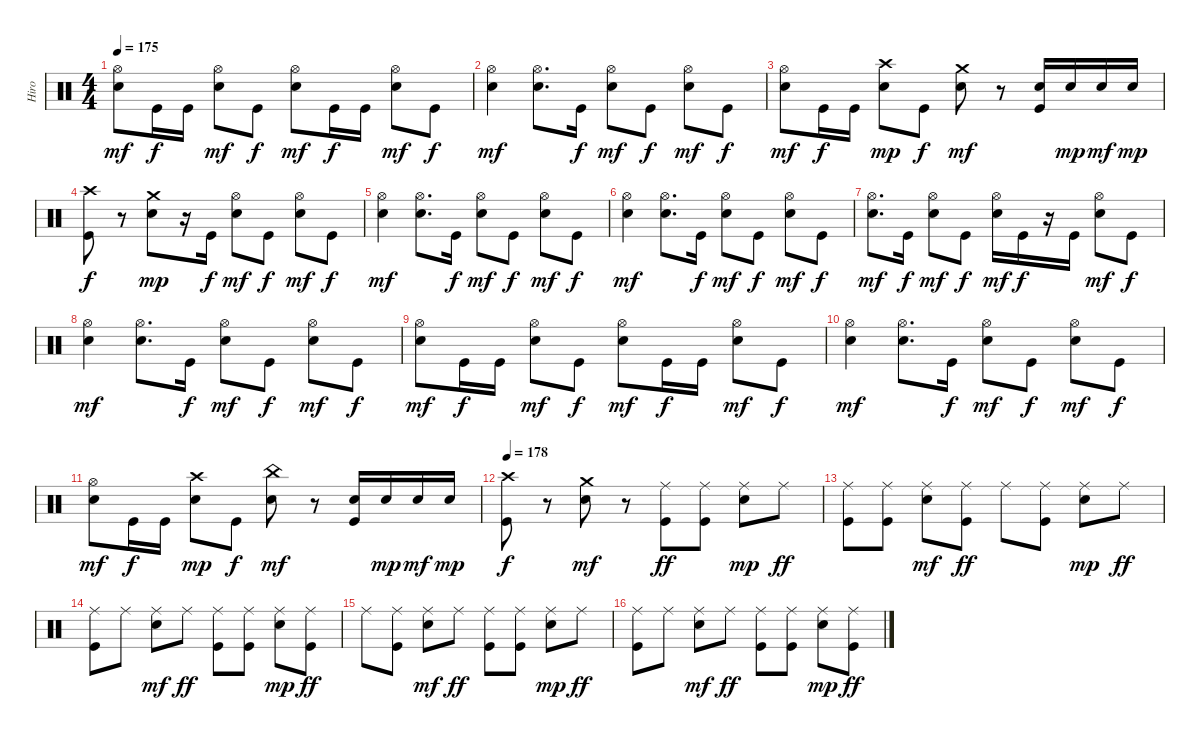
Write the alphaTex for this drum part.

\track ("Hiro" "Hiro") {instrument percussion}
\staff {score}
\articulation defaults
\ts (4 4)
\tempo 175
\clef neutral
\ks c
("Electric Snare (hit)" "Hi-Hat (open)").8{dy mf} "Kick (hit)".16{dy f} "Kick (hit)".16 ("Electric Snare (hit)" "Hi-Hat (open)").8{dy mf} "Kick (hit)".8{dy f} ("Electric Snare (hit)" "Hi-Hat (open)").8{dy mf} "Kick (hit)".16{dy f} "Kick (hit)".16 ("Electric Snare (hit)" "Hi-Hat (open)").8{dy mf} "Kick (hit)".8{dy f} |
("Electric Snare (hit)" "Hi-Hat (open)").4{dy mf} ("Electric Snare (hit)" "Hi-Hat (open)").8{d} "Kick (hit)".16{dy f} ("Electric Snare (hit)" "Hi-Hat (open)").8{dy mf} "Kick (hit)".8{dy f} ("Electric Snare (hit)" "Hi-Hat (open)").8{dy mf} "Kick (hit)".8{dy f} |
("Hi-Hat (open)" "Electric Snare (hit)").8{dy mf} "Kick (hit)".16{dy f} "Kick (hit)".16 ("Crash high (hit)" "Electric Snare (hit)").8{dy mp} "Kick (hit)".8{dy f} ("Crash medium (hit)" "Electric Snare (hit)").8{dy mf} r.8 ("Electric Snare (hit)" "Kick (hit)").16 "Electric Snare (hit)".16{dy mp} "Electric Snare (hit)".16{dy mf} "Electric Snare (hit)".16{dy mp} |
("Crash high (hit)" "Kick (hit)").8{dy f} r.8 ("Crash medium (hit)" "Electric Snare (hit)").8{dy mp} r.16 "Kick (hit)".16{dy f} ("Electric Snare (hit)" "Hi-Hat (open)").8{dy mf} "Kick (hit)".8{dy f} ("Electric Snare (hit)" "Hi-Hat (open)").8{dy mf} "Kick (hit)".8{dy f} |
("Electric Snare (hit)" "Hi-Hat (open)").4{dy mf} ("Electric Snare (hit)" "Hi-Hat (open)").8{d} "Kick (hit)".16{dy f} ("Electric Snare (hit)" "Hi-Hat (open)").8{dy mf} "Kick (hit)".8{dy f} ("Electric Snare (hit)" "Hi-Hat (open)").8{dy mf} "Kick (hit)".8{dy f} |
("Electric Snare (hit)" "Hi-Hat (open)").4{dy mf} ("Electric Snare (hit)" "Hi-Hat (open)").8{d} "Kick (hit)".16{dy f} ("Electric Snare (hit)" "Hi-Hat (open)").8{dy mf} "Kick (hit)".8{dy f} ("Electric Snare (hit)" "Hi-Hat (open)").8{dy mf} "Kick (hit)".8{dy f} |
("Electric Snare (hit)" "Hi-Hat (open)").8{d dy mf} "Kick (hit)".16{dy f} ("Electric Snare (hit)" "Hi-Hat (open)").8{dy mf} "Kick (hit)".8{dy f} ("Electric Snare (hit)" "Hi-Hat (open)").16{dy mf} "Kick (hit)".16{dy f} r.16 "Kick (hit)".16 ("Electric Snare (hit)" "Hi-Hat (open)").8{dy mf} "Kick (hit)".8{dy f} |
("Electric Snare (hit)" "Hi-Hat (open)").4{dy mf} ("Electric Snare (hit)" "Hi-Hat (open)").8{d} "Kick (hit)".16{dy f} ("Electric Snare (hit)" "Hi-Hat (open)").8{dy mf} "Kick (hit)".8{dy f} ("Electric Snare (hit)" "Hi-Hat (open)").8{dy mf} "Kick (hit)".8{dy f} |
("Electric Snare (hit)" "Hi-Hat (open)").8{dy mf} "Kick (hit)".16{dy f} "Kick (hit)".16 ("Electric Snare (hit)" "Hi-Hat (open)").8{dy mf} "Kick (hit)".8{dy f} ("Electric Snare (hit)" "Hi-Hat (open)").8{dy mf} "Kick (hit)".16{dy f} "Kick (hit)".16 ("Electric Snare (hit)" "Hi-Hat (open)").8{dy mf} "Kick (hit)".8{dy f} |
("Electric Snare (hit)" "Hi-Hat (open)").4{dy mf} ("Electric Snare (hit)" "Hi-Hat (open)").8{d} "Kick (hit)".16{dy f} ("Electric Snare (hit)" "Hi-Hat (open)").8{dy mf} "Kick (hit)".8{dy f} ("Electric Snare (hit)" "Hi-Hat (open)").8{dy mf} "Kick (hit)".8{dy f} |
("Electric Snare (hit)" "Hi-Hat (open)").8{dy mf} "Kick (hit)".16{dy f} "Kick (hit)".16 ("Crash high (hit)" "Electric Snare (hit)").8{dy mp} "Kick (hit)".8{dy f} ("Electric Snare (hit)" "China (hit)").8{dy mf} r.8 ("Electric Snare (hit)" "Kick (hit)").16 "Electric Snare (hit)".16{dy mp} "Electric Snare (hit)".16{dy mf} "Electric Snare (hit)".16{dy mp} |
\tempo 178
("Crash high (hit)" "Kick (hit)").8{dy f} r.8 ("Crash medium (hit)" "Electric Snare (hit)").8{dy mf} r.8 ("Ride (middle)" "Kick (hit)").8{dy ff} ("Ride (middle)" "Kick (hit)").8 ("Ride (middle)" "Electric Snare (hit)").8{dy mp} "Ride (middle)".8{dy ff} |
("Ride (middle)" "Kick (hit)").8 ("Ride (middle)" "Kick (hit)").8 ("Ride (middle)" "Electric Snare (hit)").8{dy mf} ("Ride (middle)" "Kick (hit)").8{dy ff} "Ride (middle)".8 ("Ride (middle)" "Kick (hit)").8 ("Ride (middle)" "Electric Snare (hit)").8{dy mp} "Ride (middle)".8{dy ff} |
("Ride (middle)" "Kick (hit)").8 "Ride (middle)".8 ("Ride (middle)" "Electric Snare (hit)").8{dy mf} "Ride (middle)".8{dy ff} ("Ride (middle)" "Kick (hit)").8 ("Ride (middle)" "Kick (hit)").8 ("Ride (middle)" "Electric Snare (hit)").8{dy mp} ("Ride (middle)" "Kick (hit)").8{dy ff} |
"Ride (middle)".8 ("Ride (middle)" "Kick (hit)").8 ("Ride (middle)" "Electric Snare (hit)").8{dy mf} "Ride (middle)".8{dy ff} ("Ride (middle)" "Kick (hit)").8 ("Ride (middle)" "Kick (hit)").8 ("Ride (middle)" "Electric Snare (hit)").8{dy mp} "Ride (middle)".8{dy ff} |
("Ride (middle)" "Kick (hit)").8 "Ride (middle)".8 ("Ride (middle)" "Electric Snare (hit)").8{dy mf} "Ride (middle)".8{dy ff} ("Ride (middle)" "Kick (hit)").8 ("Ride (middle)" "Kick (hit)").8 ("Ride (middle)" "Electric Snare (hit)").8{dy mp} ("Ride (middle)" "Kick (hit)").8{dy ff}
